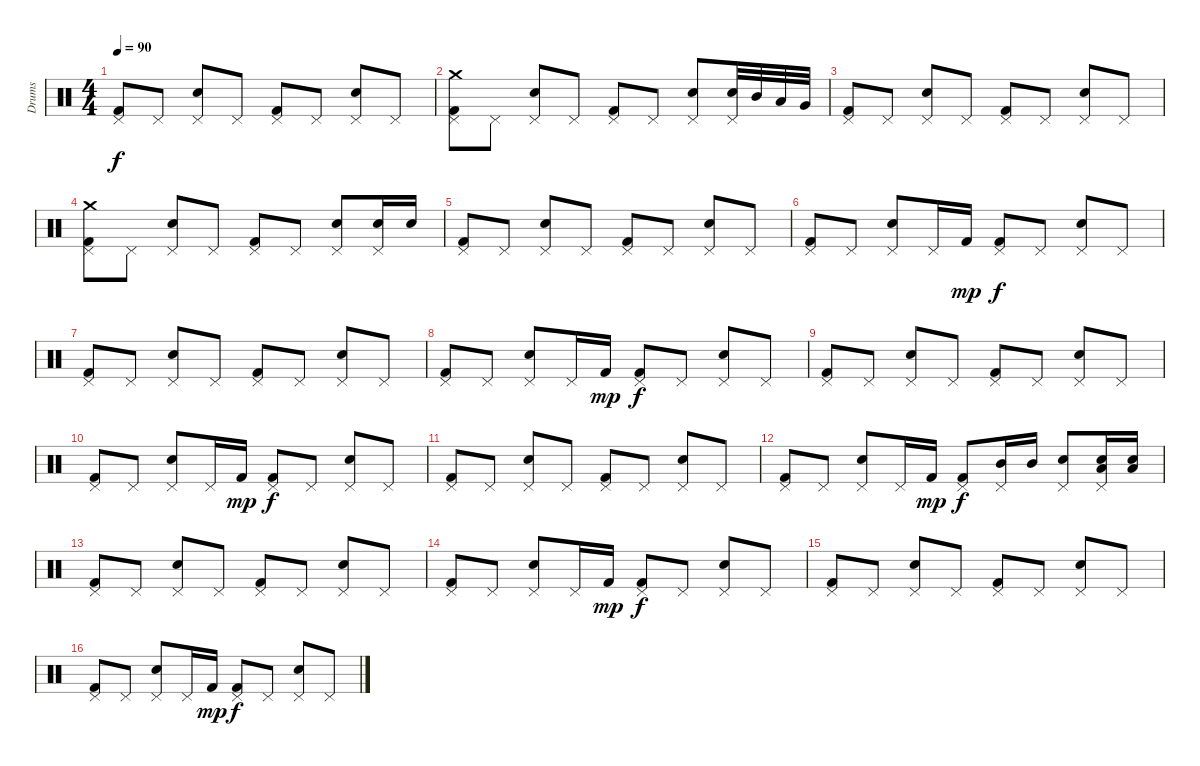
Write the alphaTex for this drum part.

\track ("Drums" "Drums") {instrument percussion}
\staff {score}
\articulation defaults
\ts (4 4)
\tempo 90
\clef neutral
\ks c
("Kick (hit) 2" "Pedal Hi-Hat (hit)").8{dy f} "Pedal Hi-Hat (hit)".8 ("Pedal Hi-Hat (hit)" "Electric Snare (hit)").8 "Pedal Hi-Hat (hit)".8 ("Pedal Hi-Hat (hit)" "Kick (hit) 2").8 "Pedal Hi-Hat (hit)".8 ("Pedal Hi-Hat (hit)" "Electric Snare (hit)").8 "Pedal Hi-Hat (hit)".8 |
("Crash medium (hit)" "Kick (hit) 2" "Pedal Hi-Hat (hit)").8 "Pedal Hi-Hat (hit)".8 ("Electric Snare (hit)" "Pedal Hi-Hat (hit)").8 "Pedal Hi-Hat (hit)".8 ("Pedal Hi-Hat (hit)" "Kick (hit) 2").8 "Pedal Hi-Hat (hit)".8 ("Electric Snare (hit)" "Pedal Hi-Hat (hit)").8 ("Electric Snare (hit)" "Pedal Hi-Hat (hit)").32 "Mid Tom (hit)".32 "Low Tom (hit)".32 "Very Low Tom (hit)".32 |
("Pedal Hi-Hat (hit)" "Kick (hit) 2").8 "Pedal Hi-Hat (hit)".8 ("Electric Snare (hit)" "Pedal Hi-Hat (hit)").8 "Pedal Hi-Hat (hit)".8 ("Kick (hit) 2" "Pedal Hi-Hat (hit)").8 "Pedal Hi-Hat (hit)".8 ("Pedal Hi-Hat (hit)" "Electric Snare (hit)").8 "Pedal Hi-Hat (hit)".8 |
("Crash medium (hit)" "Kick (hit) 2" "Pedal Hi-Hat (hit)").8 "Pedal Hi-Hat (hit)".8 ("Electric Snare (hit)" "Pedal Hi-Hat (hit)").8 "Pedal Hi-Hat (hit)".8 ("Pedal Hi-Hat (hit)" "Kick (hit) 2").8 "Pedal Hi-Hat (hit)".8 ("Electric Snare (hit)" "Pedal Hi-Hat (hit)").8 ("Electric Snare (hit)" "Pedal Hi-Hat (hit)").16 "Electric Snare (hit)".16 |
("Pedal Hi-Hat (hit)" "Kick (hit) 2").8 "Pedal Hi-Hat (hit)".8 ("Pedal Hi-Hat (hit)" "Electric Snare (hit)").8 "Pedal Hi-Hat (hit)".8 ("Kick (hit) 2" "Pedal Hi-Hat (hit)").8 "Pedal Hi-Hat (hit)".8 ("Electric Snare (hit)" "Pedal Hi-Hat (hit)").8 "Pedal Hi-Hat (hit)".8 |
("Pedal Hi-Hat (hit)" "Kick (hit) 2").8 "Pedal Hi-Hat (hit)".8 ("Pedal Hi-Hat (hit)" "Electric Snare (hit)").8 "Pedal Hi-Hat (hit)".16 "Kick (hit) 2".16{dy mp} ("Kick (hit) 2" "Pedal Hi-Hat (hit)").8{dy f} "Pedal Hi-Hat (hit)".8 ("Electric Snare (hit)" "Pedal Hi-Hat (hit)").8 "Pedal Hi-Hat (hit)".8 |
("Pedal Hi-Hat (hit)" "Kick (hit) 2").8 "Pedal Hi-Hat (hit)".8 ("Pedal Hi-Hat (hit)" "Electric Snare (hit)").8 "Pedal Hi-Hat (hit)".8 ("Kick (hit) 2" "Pedal Hi-Hat (hit)").8 "Pedal Hi-Hat (hit)".8 ("Electric Snare (hit)" "Pedal Hi-Hat (hit)").8 "Pedal Hi-Hat (hit)".8 |
("Pedal Hi-Hat (hit)" "Kick (hit) 2").8 "Pedal Hi-Hat (hit)".8 ("Pedal Hi-Hat (hit)" "Electric Snare (hit)").8 "Pedal Hi-Hat (hit)".16 "Kick (hit) 2".16{dy mp} ("Kick (hit) 2" "Pedal Hi-Hat (hit)").8{dy f} "Pedal Hi-Hat (hit)".8 ("Electric Snare (hit)" "Pedal Hi-Hat (hit)").8 "Pedal Hi-Hat (hit)".8 |
("Pedal Hi-Hat (hit)" "Kick (hit) 2").8 "Pedal Hi-Hat (hit)".8 ("Pedal Hi-Hat (hit)" "Electric Snare (hit)").8 "Pedal Hi-Hat (hit)".8 ("Kick (hit) 2" "Pedal Hi-Hat (hit)").8 "Pedal Hi-Hat (hit)".8 ("Electric Snare (hit)" "Pedal Hi-Hat (hit)").8 "Pedal Hi-Hat (hit)".8 |
("Pedal Hi-Hat (hit)" "Kick (hit) 2").8 "Pedal Hi-Hat (hit)".8 ("Pedal Hi-Hat (hit)" "Electric Snare (hit)").8 "Pedal Hi-Hat (hit)".16 "Kick (hit) 2".16{dy mp} ("Kick (hit) 2" "Pedal Hi-Hat (hit)").8{dy f} "Pedal Hi-Hat (hit)".8 ("Electric Snare (hit)" "Pedal Hi-Hat (hit)").8 "Pedal Hi-Hat (hit)".8 |
("Pedal Hi-Hat (hit)" "Kick (hit) 2").8 "Pedal Hi-Hat (hit)".8 ("Pedal Hi-Hat (hit)" "Electric Snare (hit)").8 "Pedal Hi-Hat (hit)".8 ("Kick (hit) 2" "Pedal Hi-Hat (hit)").8 "Pedal Hi-Hat (hit)".8 ("Electric Snare (hit)" "Pedal Hi-Hat (hit)").8 "Pedal Hi-Hat (hit)".8 |
("Pedal Hi-Hat (hit)" "Kick (hit) 2").8 "Pedal Hi-Hat (hit)".8 ("Pedal Hi-Hat (hit)" "Electric Snare (hit)").8 "Pedal Hi-Hat (hit)".16 "Kick (hit) 2".16{dy mp} ("Pedal Hi-Hat (hit)" "Kick (hit) 2").8{dy f} ("Pedal Hi-Hat (hit)" "Mid Tom (hit)").16 "Mid Tom (hit)".16 ("Electric Snare (hit)" "Pedal Hi-Hat (hit)").8 ("Pedal Hi-Hat (hit)" "Electric Snare (hit)" "Low Tom (hit)").16 ("Electric Snare (hit)" "Low Tom (hit)").16 |
("Pedal Hi-Hat (hit)" "Kick (hit) 2").8 "Pedal Hi-Hat (hit)".8 ("Pedal Hi-Hat (hit)" "Electric Snare (hit)").8 "Pedal Hi-Hat (hit)".8 ("Kick (hit) 2" "Pedal Hi-Hat (hit)").8 "Pedal Hi-Hat (hit)".8 ("Electric Snare (hit)" "Pedal Hi-Hat (hit)").8 "Pedal Hi-Hat (hit)".8 |
("Pedal Hi-Hat (hit)" "Kick (hit) 2").8 "Pedal Hi-Hat (hit)".8 ("Pedal Hi-Hat (hit)" "Electric Snare (hit)").8 "Pedal Hi-Hat (hit)".16 "Kick (hit) 2".16{dy mp} ("Kick (hit) 2" "Pedal Hi-Hat (hit)").8{dy f} "Pedal Hi-Hat (hit)".8 ("Electric Snare (hit)" "Pedal Hi-Hat (hit)").8 "Pedal Hi-Hat (hit)".8 |
("Pedal Hi-Hat (hit)" "Kick (hit) 2").8 "Pedal Hi-Hat (hit)".8 ("Pedal Hi-Hat (hit)" "Electric Snare (hit)").8 "Pedal Hi-Hat (hit)".8 ("Kick (hit) 2" "Pedal Hi-Hat (hit)").8 "Pedal Hi-Hat (hit)".8 ("Electric Snare (hit)" "Pedal Hi-Hat (hit)").8 "Pedal Hi-Hat (hit)".8 |
("Pedal Hi-Hat (hit)" "Kick (hit) 2").8 "Pedal Hi-Hat (hit)".8 ("Pedal Hi-Hat (hit)" "Electric Snare (hit)").8 "Pedal Hi-Hat (hit)".16 "Kick (hit) 2".16{dy mp} ("Kick (hit) 2" "Pedal Hi-Hat (hit)").8{dy f} "Pedal Hi-Hat (hit)".8 ("Electric Snare (hit)" "Pedal Hi-Hat (hit)").8 "Pedal Hi-Hat (hit)".8
